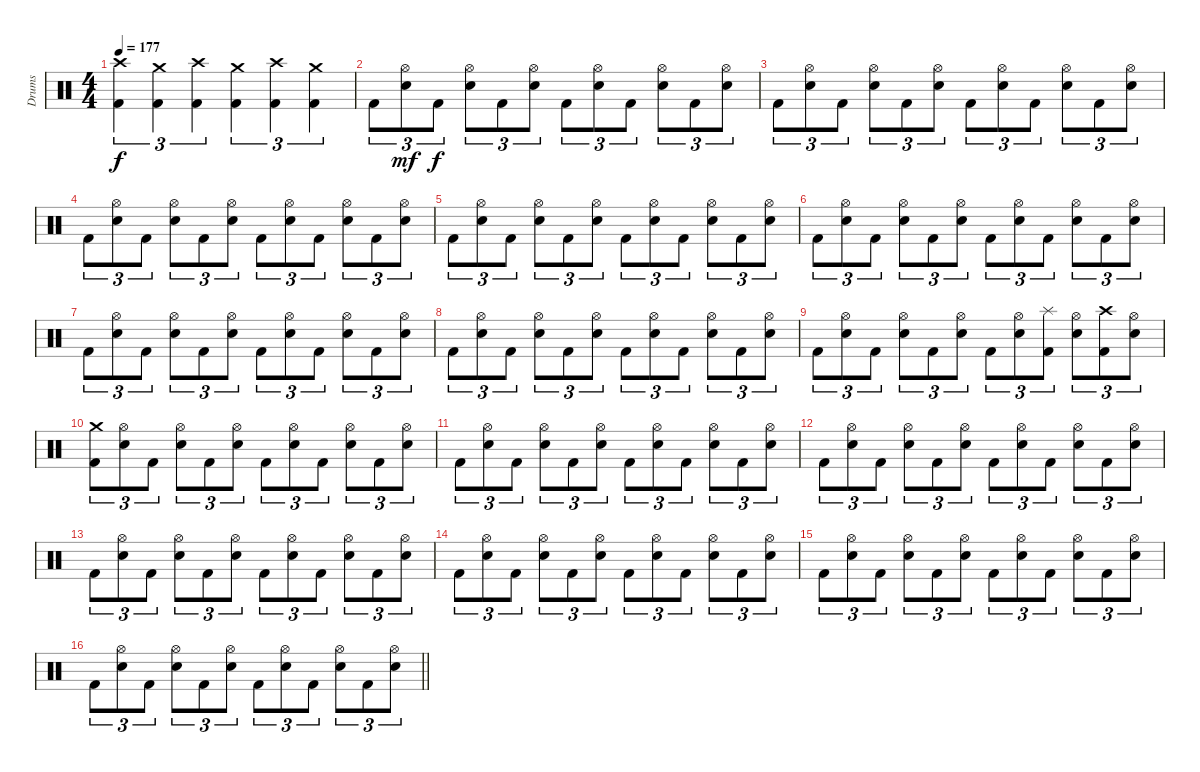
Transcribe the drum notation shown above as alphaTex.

\track ("Drums" "Drums") {instrument percussion}
\staff {score}
\articulation defaults
\ts (4 4)
\tempo 177
\clef neutral
\ks c
("Crash high (hit)" "Kick (hit) 2").4{tu (3 2) dy f} ("Crash medium (hit)" "Kick (hit) 2").4{tu (3 2)} ("Crash high (hit)" "Kick (hit) 2").4{tu (3 2)} ("Crash medium (hit)" "Kick (hit) 2").4{tu (3 2)} ("Crash high (hit)" "Kick (hit) 2").4{tu (3 2)} ("Crash medium (hit)" "Kick (hit) 2").4{tu (3 2)} |
"Kick (hit) 2".8{tu (3 2)} ("Hi-Hat (open)" "Electric Snare (hit)").8{tu (3 2) dy mf} "Kick (hit) 2".8{tu (3 2) dy f} ("Hi-Hat (open)" "Electric Snare (hit)").8{tu (3 2)} "Kick (hit) 2".8{tu (3 2)} ("Hi-Hat (open)" "Electric Snare (hit)").8{tu (3 2)} "Kick (hit) 2".8{tu (3 2)} ("Hi-Hat (open)" "Electric Snare (hit)").8{tu (3 2)} "Kick (hit) 2".8{tu (3 2)} ("Hi-Hat (open)" "Electric Snare (hit)").8{tu (3 2)} "Kick (hit) 2".8{tu (3 2)} ("Hi-Hat (open)" "Electric Snare (hit)").8{tu (3 2)} |
"Kick (hit) 2".8{tu (3 2)} ("Hi-Hat (open)" "Electric Snare (hit)").8{tu (3 2)} "Kick (hit) 2".8{tu (3 2)} ("Hi-Hat (open)" "Electric Snare (hit)").8{tu (3 2)} "Kick (hit) 2".8{tu (3 2)} ("Hi-Hat (open)" "Electric Snare (hit)").8{tu (3 2)} "Kick (hit) 2".8{tu (3 2)} ("Hi-Hat (open)" "Electric Snare (hit)").8{tu (3 2)} "Kick (hit) 2".8{tu (3 2)} ("Hi-Hat (open)" "Electric Snare (hit)").8{tu (3 2)} "Kick (hit) 2".8{tu (3 2)} ("Hi-Hat (open)" "Electric Snare (hit)").8{tu (3 2)} |
"Kick (hit) 2".8{tu (3 2)} ("Hi-Hat (open)" "Electric Snare (hit)").8{tu (3 2)} "Kick (hit) 2".8{tu (3 2)} ("Hi-Hat (open)" "Electric Snare (hit)").8{tu (3 2)} "Kick (hit) 2".8{tu (3 2)} ("Hi-Hat (open)" "Electric Snare (hit)").8{tu (3 2)} "Kick (hit) 2".8{tu (3 2)} ("Hi-Hat (open)" "Electric Snare (hit)").8{tu (3 2)} "Kick (hit) 2".8{tu (3 2)} ("Hi-Hat (open)" "Electric Snare (hit)").8{tu (3 2)} "Kick (hit) 2".8{tu (3 2)} ("Hi-Hat (open)" "Electric Snare (hit)").8{tu (3 2)} |
"Kick (hit) 2".8{tu (3 2)} ("Hi-Hat (open)" "Electric Snare (hit)").8{tu (3 2)} "Kick (hit) 2".8{tu (3 2)} ("Hi-Hat (open)" "Electric Snare (hit)").8{tu (3 2)} "Kick (hit) 2".8{tu (3 2)} ("Hi-Hat (open)" "Electric Snare (hit)").8{tu (3 2)} "Kick (hit) 2".8{tu (3 2)} ("Hi-Hat (open)" "Electric Snare (hit)").8{tu (3 2)} "Kick (hit) 2".8{tu (3 2)} ("Hi-Hat (open)" "Electric Snare (hit)").8{tu (3 2)} "Kick (hit) 2".8{tu (3 2)} ("Hi-Hat (open)" "Electric Snare (hit)").8{tu (3 2)} |
"Kick (hit) 2".8{tu (3 2)} ("Hi-Hat (open)" "Electric Snare (hit)").8{tu (3 2)} "Kick (hit) 2".8{tu (3 2)} ("Hi-Hat (open)" "Electric Snare (hit)").8{tu (3 2)} "Kick (hit) 2".8{tu (3 2)} ("Hi-Hat (open)" "Electric Snare (hit)").8{tu (3 2)} "Kick (hit) 2".8{tu (3 2)} ("Hi-Hat (open)" "Electric Snare (hit)").8{tu (3 2)} "Kick (hit) 2".8{tu (3 2)} ("Hi-Hat (open)" "Electric Snare (hit)").8{tu (3 2)} "Kick (hit) 2".8{tu (3 2)} ("Hi-Hat (open)" "Electric Snare (hit)").8{tu (3 2)} |
"Kick (hit) 2".8{tu (3 2)} ("Hi-Hat (open)" "Electric Snare (hit)").8{tu (3 2)} "Kick (hit) 2".8{tu (3 2)} ("Hi-Hat (open)" "Electric Snare (hit)").8{tu (3 2)} "Kick (hit) 2".8{tu (3 2)} ("Hi-Hat (open)" "Electric Snare (hit)").8{tu (3 2)} "Kick (hit) 2".8{tu (3 2)} ("Hi-Hat (open)" "Electric Snare (hit)").8{tu (3 2)} "Kick (hit) 2".8{tu (3 2)} ("Hi-Hat (open)" "Electric Snare (hit)").8{tu (3 2)} "Kick (hit) 2".8{tu (3 2)} ("Hi-Hat (open)" "Electric Snare (hit)").8{tu (3 2)} |
"Kick (hit) 2".8{tu (3 2)} ("Hi-Hat (open)" "Electric Snare (hit)").8{tu (3 2)} "Kick (hit) 2".8{tu (3 2)} ("Hi-Hat (open)" "Electric Snare (hit)").8{tu (3 2)} "Kick (hit) 2".8{tu (3 2)} ("Hi-Hat (open)" "Electric Snare (hit)").8{tu (3 2)} "Kick (hit) 2".8{tu (3 2)} ("Hi-Hat (open)" "Electric Snare (hit)").8{tu (3 2)} "Kick (hit) 2".8{tu (3 2)} ("Hi-Hat (open)" "Electric Snare (hit)").8{tu (3 2)} "Kick (hit) 2".8{tu (3 2)} ("Hi-Hat (open)" "Electric Snare (hit)").8{tu (3 2)} |
"Kick (hit) 2".8{tu (3 2)} ("Hi-Hat (open)" "Electric Snare (hit)").8{tu (3 2)} "Kick (hit) 2".8{tu (3 2)} ("Hi-Hat (open)" "Electric Snare (hit)").8{tu (3 2)} "Kick (hit) 2".8{tu (3 2)} ("Hi-Hat (open)" "Electric Snare (hit)").8{tu (3 2)} "Kick (hit) 2".8{tu (3 2)} ("Hi-Hat (open)" "Electric Snare (hit)").8{tu (3 2)} ("Splash (hit)" "Kick (hit) 2").8{tu (3 2)} ("Hi-Hat (open)" "Electric Snare (hit)").8{tu (3 2)} ("Crash high (hit)" "Kick (hit) 2").8{tu (3 2)} ("Hi-Hat (open)" "Electric Snare (hit)").8{tu (3 2)} |
("Crash medium (hit)" "Kick (hit) 2").8{tu (3 2)} ("Hi-Hat (open)" "Electric Snare (hit)").8{tu (3 2)} "Kick (hit) 2".8{tu (3 2)} ("Hi-Hat (open)" "Electric Snare (hit)").8{tu (3 2)} "Kick (hit) 2".8{tu (3 2)} ("Hi-Hat (open)" "Electric Snare (hit)").8{tu (3 2)} "Kick (hit) 2".8{tu (3 2)} ("Hi-Hat (open)" "Electric Snare (hit)").8{tu (3 2)} "Kick (hit) 2".8{tu (3 2)} ("Hi-Hat (open)" "Electric Snare (hit)").8{tu (3 2)} "Kick (hit) 2".8{tu (3 2)} ("Hi-Hat (open)" "Electric Snare (hit)").8{tu (3 2)} |
"Kick (hit) 2".8{tu (3 2)} ("Hi-Hat (open)" "Electric Snare (hit)").8{tu (3 2)} "Kick (hit) 2".8{tu (3 2)} ("Hi-Hat (open)" "Electric Snare (hit)").8{tu (3 2)} "Kick (hit) 2".8{tu (3 2)} ("Hi-Hat (open)" "Electric Snare (hit)").8{tu (3 2)} "Kick (hit) 2".8{tu (3 2)} ("Hi-Hat (open)" "Electric Snare (hit)").8{tu (3 2)} "Kick (hit) 2".8{tu (3 2)} ("Hi-Hat (open)" "Electric Snare (hit)").8{tu (3 2)} "Kick (hit) 2".8{tu (3 2)} ("Hi-Hat (open)" "Electric Snare (hit)").8{tu (3 2)} |
"Kick (hit) 2".8{tu (3 2)} ("Hi-Hat (open)" "Electric Snare (hit)").8{tu (3 2)} "Kick (hit) 2".8{tu (3 2)} ("Hi-Hat (open)" "Electric Snare (hit)").8{tu (3 2)} "Kick (hit) 2".8{tu (3 2)} ("Hi-Hat (open)" "Electric Snare (hit)").8{tu (3 2)} "Kick (hit) 2".8{tu (3 2)} ("Hi-Hat (open)" "Electric Snare (hit)").8{tu (3 2)} "Kick (hit) 2".8{tu (3 2)} ("Hi-Hat (open)" "Electric Snare (hit)").8{tu (3 2)} "Kick (hit) 2".8{tu (3 2)} ("Hi-Hat (open)" "Electric Snare (hit)").8{tu (3 2)} |
"Kick (hit) 2".8{tu (3 2)} ("Hi-Hat (open)" "Electric Snare (hit)").8{tu (3 2)} "Kick (hit) 2".8{tu (3 2)} ("Hi-Hat (open)" "Electric Snare (hit)").8{tu (3 2)} "Kick (hit) 2".8{tu (3 2)} ("Hi-Hat (open)" "Electric Snare (hit)").8{tu (3 2)} "Kick (hit) 2".8{tu (3 2)} ("Hi-Hat (open)" "Electric Snare (hit)").8{tu (3 2)} "Kick (hit) 2".8{tu (3 2)} ("Hi-Hat (open)" "Electric Snare (hit)").8{tu (3 2)} "Kick (hit) 2".8{tu (3 2)} ("Hi-Hat (open)" "Electric Snare (hit)").8{tu (3 2)} |
"Kick (hit) 2".8{tu (3 2)} ("Hi-Hat (open)" "Electric Snare (hit)").8{tu (3 2)} "Kick (hit) 2".8{tu (3 2)} ("Hi-Hat (open)" "Electric Snare (hit)").8{tu (3 2)} "Kick (hit) 2".8{tu (3 2)} ("Hi-Hat (open)" "Electric Snare (hit)").8{tu (3 2)} "Kick (hit) 2".8{tu (3 2)} ("Hi-Hat (open)" "Electric Snare (hit)").8{tu (3 2)} "Kick (hit) 2".8{tu (3 2)} ("Hi-Hat (open)" "Electric Snare (hit)").8{tu (3 2)} "Kick (hit) 2".8{tu (3 2)} ("Hi-Hat (open)" "Electric Snare (hit)").8{tu (3 2)} |
"Kick (hit) 2".8{tu (3 2)} ("Hi-Hat (open)" "Electric Snare (hit)").8{tu (3 2)} "Kick (hit) 2".8{tu (3 2)} ("Hi-Hat (open)" "Electric Snare (hit)").8{tu (3 2)} "Kick (hit) 2".8{tu (3 2)} ("Hi-Hat (open)" "Electric Snare (hit)").8{tu (3 2)} "Kick (hit) 2".8{tu (3 2)} ("Hi-Hat (open)" "Electric Snare (hit)").8{tu (3 2)} "Kick (hit) 2".8{tu (3 2)} ("Hi-Hat (open)" "Electric Snare (hit)").8{tu (3 2)} "Kick (hit) 2".8{tu (3 2)} ("Hi-Hat (open)" "Electric Snare (hit)").8{tu (3 2)} |
\barLineRight lightlight "Kick (hit) 2".8{tu (3 2)}
("Hi-Hat (open)" "Electric Snare (hit)").8{tu (3 2)} "Kick (hit) 2".8{tu (3 2)} ("Hi-Hat (open)" "Electric Snare (hit)").8{tu (3 2)} "Kick (hit) 2".8{tu (3 2)} ("Hi-Hat (open)" "Electric Snare (hit)").8{tu (3 2)} "Kick (hit) 2".8{tu (3 2)} ("Hi-Hat (open)" "Electric Snare (hit)").8{tu (3 2)} "Kick (hit) 2".8{tu (3 2)} ("Hi-Hat (open)" "Electric Snare (hit)").8{tu (3 2)} "Kick (hit) 2".8{tu (3 2)} ("Hi-Hat (open)" "Electric Snare (hit)").8{tu (3 2)}
